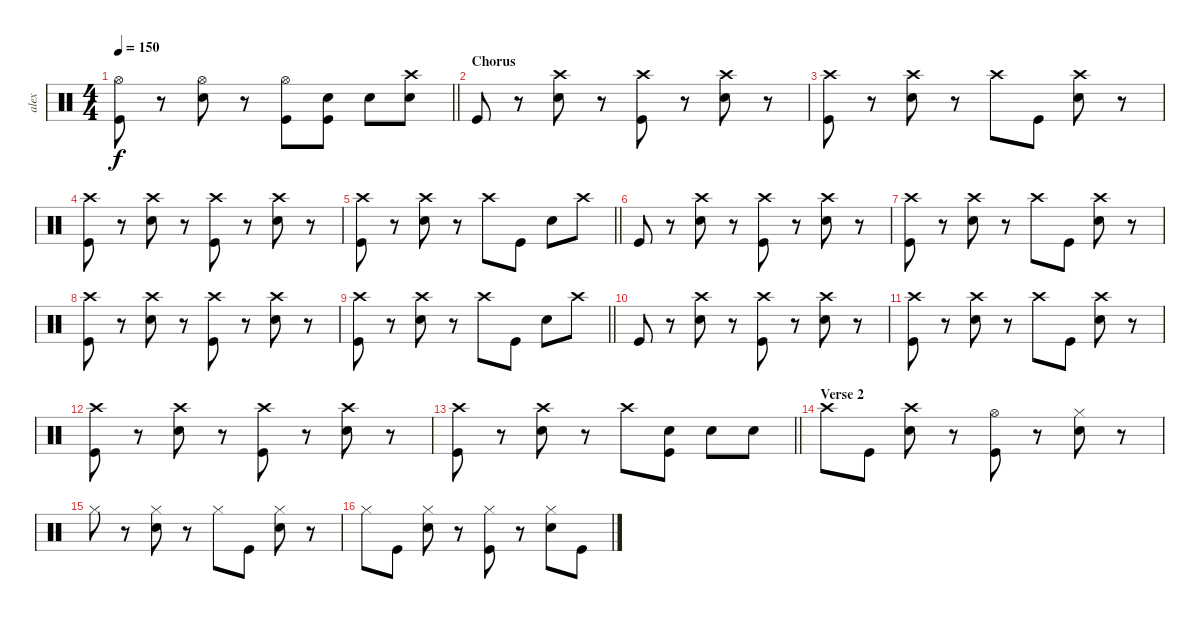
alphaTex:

\track ("alex" "alex") {instrument percussion}
\staff {score}
\articulation defaults
\ts (4 4)
\tempo 150
\clef neutral
\barLineRight lightlight
\ks c
("Hi-Hat (open)" "Kick (hit)").8{dy f} r.8 ("Hi-Hat (open)" "Snare (hit) 2").8 r.8 ("Hi-Hat (open)" "Kick (hit)").8 ("Snare (hit) 2" "Kick (hit)").8 "Snare (hit) 2".8 ("Crash high (hit)" "Snare (hit) 2").8 |
\section ("" "Chorus")
"Kick (hit)".8 r.8 ("Crash high (hit)" "Snare (hit) 2").8 r.8 ("Crash high (hit)" "Kick (hit)").8 r.8 ("Crash high (hit)" "Snare (hit) 2").8 r.8 |
("Crash high (hit)" "Kick (hit)").8 r.8 ("Crash high (hit)" "Snare (hit) 2").8 r.8 "Crash high (hit)".8 "Kick (hit)".8 ("Crash high (hit)" "Snare (hit) 2").8 r.8 |
("Crash high (hit)" "Kick (hit)").8 r.8 ("Crash high (hit)" "Snare (hit) 2").8 r.8 ("Crash high (hit)" "Kick (hit)").8 r.8 ("Crash high (hit)" "Snare (hit) 2").8 r.8 |
\barLineRight lightlight
("Crash high (hit)" "Kick (hit)").8 r.8 ("Crash high (hit)" "Snare (hit) 2").8 r.8 "Crash high (hit)".8 "Kick (hit)".8 "Snare (hit) 2".8 "Crash high (hit)".8 |
"Kick (hit)".8 r.8 ("Crash high (hit)" "Snare (hit) 2").8 r.8 ("Crash high (hit)" "Kick (hit)").8 r.8 ("Crash high (hit)" "Snare (hit) 2").8 r.8 |
("Crash high (hit)" "Kick (hit)").8 r.8 ("Crash high (hit)" "Snare (hit) 2").8 r.8 "Crash high (hit)".8 "Kick (hit)".8 ("Crash high (hit)" "Snare (hit) 2").8 r.8 |
("Crash high (hit)" "Kick (hit)").8 r.8 ("Crash high (hit)" "Snare (hit) 2").8 r.8 ("Crash high (hit)" "Kick (hit)").8 r.8 ("Crash high (hit)" "Snare (hit) 2").8 r.8 |
\barLineRight lightlight
("Crash high (hit)" "Kick (hit)").8 r.8 ("Crash high (hit)" "Snare (hit) 2").8 r.8 "Crash high (hit)".8 "Kick (hit)".8 "Snare (hit) 2".8 "Crash high (hit)".8 |
"Kick (hit)".8 r.8 ("Crash high (hit)" "Snare (hit) 2").8 r.8 ("Crash high (hit)" "Kick (hit)").8 r.8 ("Crash high (hit)" "Snare (hit) 2").8 r.8 |
("Crash high (hit)" "Kick (hit)").8 r.8 ("Crash high (hit)" "Snare (hit) 2").8 r.8 "Crash high (hit)".8 "Kick (hit)".8 ("Crash high (hit)" "Snare (hit) 2").8 r.8 |
("Crash high (hit)" "Kick (hit)").8 r.8 ("Crash high (hit)" "Snare (hit) 2").8 r.8 ("Crash high (hit)" "Kick (hit)").8 r.8 ("Crash high (hit)" "Snare (hit) 2").8 r.8 |
\barLineRight lightlight
("Crash high (hit)" "Kick (hit)").8 r.8 ("Crash high (hit)" "Snare (hit) 2").8 r.8 "Crash high (hit)".8 ("Snare (hit) 2" "Kick (hit)").8 "Snare (hit) 2".8 "Snare (hit) 2".8 |
\section ("" "Verse 2")
"Crash high (hit)".8 "Kick (hit)".8 ("Crash high (hit)" "Snare (hit) 2").8 r.8 ("Hi-Hat (open)" "Kick (hit)").8 r.8 ("Hi-Hat (closed)" "Snare (hit) 2").8 r.8 |
"Hi-Hat (closed)".8 r.8 ("Hi-Hat (closed)" "Snare (hit) 2").8 r.8 "Hi-Hat (closed)".8 "Kick (hit)".8 ("Hi-Hat (closed)" "Snare (hit) 2").8 r.8 |
"Hi-Hat (closed)".8 "Kick (hit)".8 ("Hi-Hat (closed)" "Snare (hit) 2").8 r.8 ("Hi-Hat (closed)" "Kick (hit)").8 r.8 ("Hi-Hat (closed)" "Snare (hit) 2").8 "Kick (hit)".8
